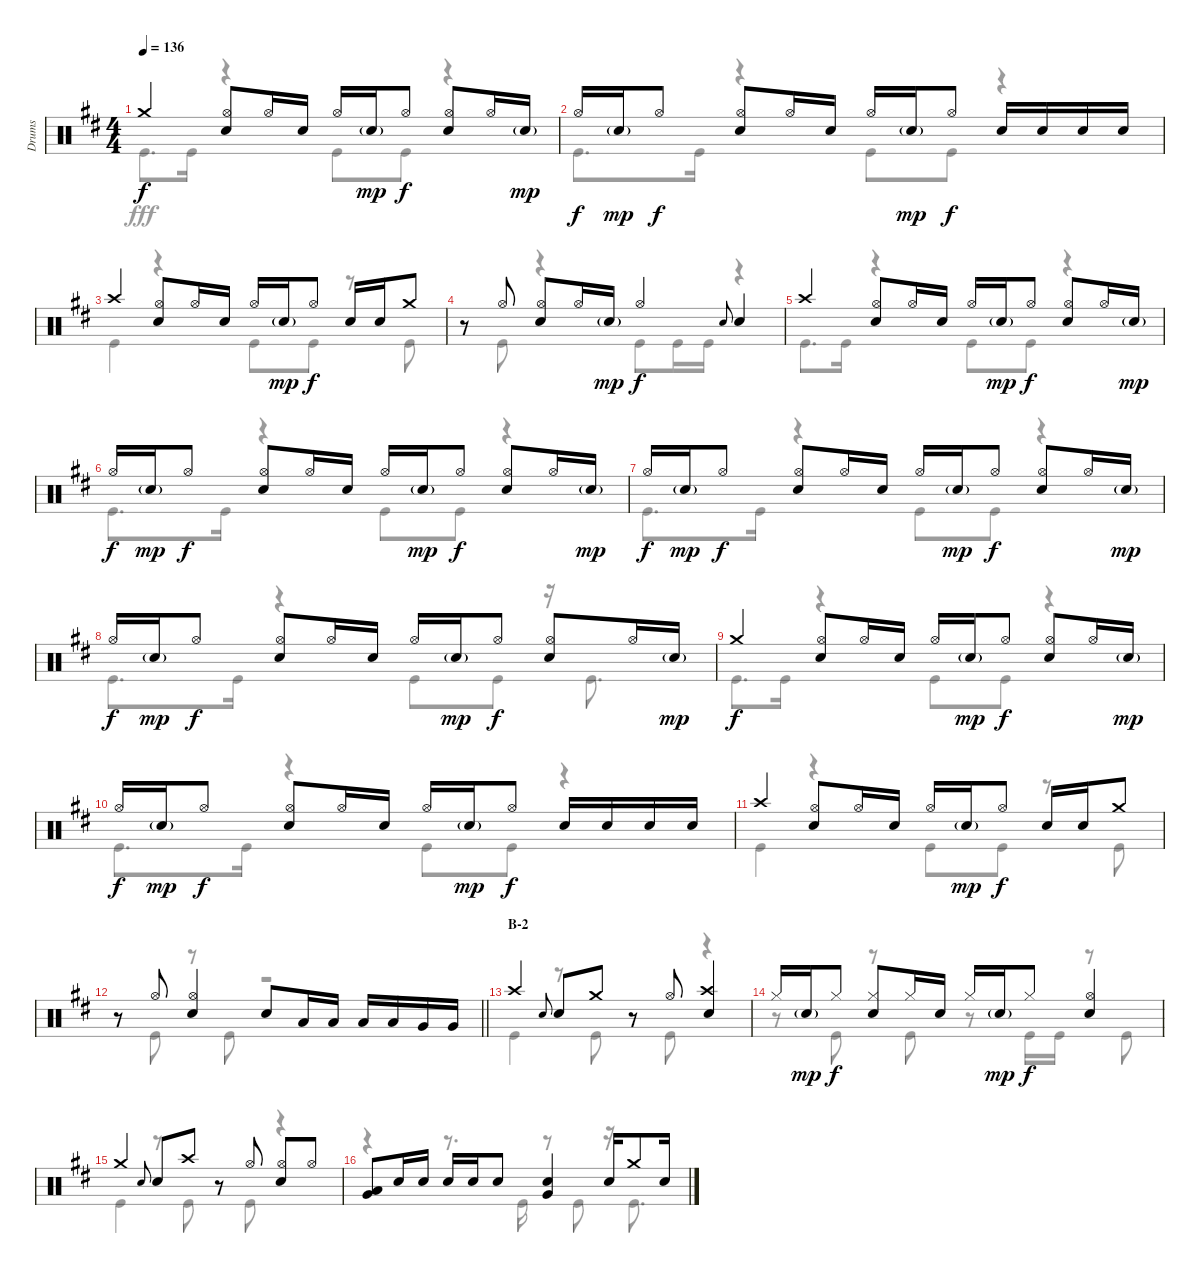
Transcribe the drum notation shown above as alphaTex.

\track ("Drums" "Drums") {instrument percussion}
\staff {score}
\articulation defaults
\voice
\ts (4 4)
\tempo 136
\clef neutral
\ks d "Crash medium (hit)".4{dy f}
("Hi-Hat (open)" "Snare (hit) 2").8 "Hi-Hat (open)".16 "Snare (hit) 2".16 "Hi-Hat (open)".16 "Snare (hit) 2"{g}.16{dy mp} "Hi-Hat (open)".8{dy f} ("Hi-Hat (open)" "Snare (hit) 2").8 "Hi-Hat (open)".16 "Snare (hit) 2"{g}.16{dy mp} |
"Hi-Hat (open)".16{dy f} "Snare (hit) 2"{g}.16{dy mp} "Hi-Hat (open)".8{dy f} ("Hi-Hat (open)" "Snare (hit) 2").8 "Hi-Hat (open)".16 "Snare (hit) 2".16 "Hi-Hat (open)".16 "Snare (hit) 2"{g}.16{dy mp} "Hi-Hat (open)".8{dy f} "Snare (hit) 2".16 "Snare (hit) 2".16 "Snare (hit) 2".16 "Snare (hit) 2".16 |
"Crash high (hit)".4 ("Hi-Hat (open)" "Snare (hit) 2").8 "Hi-Hat (open)".16 "Snare (hit) 2".16 "Hi-Hat (open)".16 "Snare (hit) 2"{g}.16{dy mp} "Hi-Hat (open)".8{dy f} "Snare (hit) 2".16 "Snare (hit) 2".16 "Crash medium (hit)".8 |
r.8 "Hi-Hat (open)".8 ("Hi-Hat (open)" "Snare (hit) 2").8 "Hi-Hat (open)".16 "Snare (hit) 2"{g}.16{dy mp} "Hi-Hat (open)".4{dy f} "Snare (hit) 2".8{gr onbeat} "Snare (hit) 2".4 |
"Crash high (hit)".4 ("Hi-Hat (open)" "Snare (hit) 2").8 "Hi-Hat (open)".16 "Snare (hit) 2".16 "Hi-Hat (open)".16 "Snare (hit) 2"{g}.16{dy mp} "Hi-Hat (open)".8{dy f} ("Hi-Hat (open)" "Snare (hit) 2").8 "Hi-Hat (open)".16 "Snare (hit) 2"{g}.16{dy mp} |
"Hi-Hat (open)".16{dy f} "Snare (hit) 2"{g}.16{dy mp} "Hi-Hat (open)".8{dy f} ("Hi-Hat (open)" "Snare (hit) 2").8 "Hi-Hat (open)".16 "Snare (hit) 2".16 "Hi-Hat (open)".16 "Snare (hit) 2"{g}.16{dy mp} "Hi-Hat (open)".8{dy f} ("Hi-Hat (open)" "Snare (hit) 2").8 "Hi-Hat (open)".16 "Snare (hit) 2"{g}.16{dy mp} |
"Hi-Hat (open)".16{dy f} "Snare (hit) 2"{g}.16{dy mp} "Hi-Hat (open)".8{dy f} ("Hi-Hat (open)" "Snare (hit) 2").8 "Hi-Hat (open)".16 "Snare (hit) 2".16 "Hi-Hat (open)".16 "Snare (hit) 2"{g}.16{dy mp} "Hi-Hat (open)".8{dy f} ("Hi-Hat (open)" "Snare (hit) 2").8 "Hi-Hat (open)".16 "Snare (hit) 2"{g}.16{dy mp} |
"Hi-Hat (open)".16{dy f} "Snare (hit) 2"{g}.16{dy mp} "Hi-Hat (open)".8{dy f} ("Hi-Hat (open)" "Snare (hit) 2").8 "Hi-Hat (open)".16 "Snare (hit) 2".16 "Hi-Hat (open)".16 "Snare (hit) 2"{g}.16{dy mp} "Hi-Hat (open)".8{dy f} ("Hi-Hat (open)" "Snare (hit) 2").8 "Hi-Hat (open)".16 "Snare (hit) 2"{g}.16{dy mp} |
"Crash medium (hit)".4{dy f} ("Hi-Hat (open)" "Snare (hit) 2").8 "Hi-Hat (open)".16 "Snare (hit) 2".16 "Hi-Hat (open)".16 "Snare (hit) 2"{g}.16{dy mp} "Hi-Hat (open)".8{dy f} ("Hi-Hat (open)" "Snare (hit) 2").8 "Hi-Hat (open)".16 "Snare (hit) 2"{g}.16{dy mp} |
"Hi-Hat (open)".16{dy f} "Snare (hit) 2"{g}.16{dy mp} "Hi-Hat (open)".8{dy f} ("Hi-Hat (open)" "Snare (hit) 2").8 "Hi-Hat (open)".16 "Snare (hit) 2".16 "Hi-Hat (open)".16 "Snare (hit) 2"{g}.16{dy mp} "Hi-Hat (open)".8{dy f} "Snare (hit) 2".16 "Snare (hit) 2".16 "Snare (hit) 2".16 "Snare (hit) 2".16 |
"Crash high (hit)".4 ("Hi-Hat (open)" "Snare (hit) 2").8 "Hi-Hat (open)".16 "Snare (hit) 2".16 "Hi-Hat (open)".16 "Snare (hit) 2"{g}.16{dy mp} "Hi-Hat (open)".8{dy f} "Snare (hit) 2".16 "Snare (hit) 2".16 "Crash medium (hit)".8 |
\barLineRight lightlight
r.8 "Hi-Hat (open)".8 ("Hi-Hat (open)" "Snare (hit) 2").4 "Snare (hit) 2".8 "Low Tom (hit)".16 "Low Tom (hit)".16 "Low Tom (hit)".16 "Low Tom (hit)".16 "Very Low Tom (hit)".16 "Very Low Tom (hit)".16 |
\section ("" "B-2")
"Crash high (hit)".4 "Snare (hit) 2".8{gr onbeat} "Snare (hit) 2".8 "Crash medium (hit)".8 r.8 "Hi-Hat (open)".8 ("Crash high (hit)" "Snare (hit) 2").4 |
"Hi-Hat (closed)".16 "Snare (hit) 2"{g}.16{dy mp} "Hi-Hat (closed)".8{dy f} ("Hi-Hat (closed)" "Snare (hit) 2").8 "Hi-Hat (closed)".16 "Snare (hit) 2".16 "Hi-Hat (closed)".16 "Snare (hit) 2"{g}.16{dy mp} "Hi-Hat (closed)".8{dy f} ("Hi-Hat (open)" "Snare (hit) 2").4 |
"Crash medium (hit)".4 "Snare (hit) 2".8{gr onbeat} "Snare (hit) 2".8 "Crash high (hit)".8 r.8 "Hi-Hat (open)".8 ("Hi-Hat (open)" "Snare (hit) 2").8 "Hi-Hat (open)".8 |
("Low Tom (hit)" "Very Low Tom (hit)").8 "Snare (hit) 2".16 "Snare (hit) 2".16 "Snare (hit) 2".16 "Snare (hit) 2".16 "Snare (hit) 2".8 ("Snare (hit) 2" "Very Low Tom (hit)").4 "Snare (hit) 2".16 "Crash medium (hit)".8 "Snare (hit) 2".16
\voice
\clef neutral
\ottava regular
\simile none
\ks d "Kick (hit)".8{d dy fff} "Kick (hit)".16
r.4 "Kick (hit)".8 "Kick (hit)".8 r.4 |
"Kick (hit)".8{d} "Kick (hit)".16 r.4 "Kick (hit)".8 "Kick (hit)".8 r.4 |
"Kick (hit)".4 r.4 "Kick (hit)".8 "Kick (hit)".8 r.8 "Kick (hit)".8 |
r.8 "Kick (hit)".8 r.4 "Kick (hit)".8 "Kick (hit)".16 "Kick (hit)".16 r.4 |
"Kick (hit)".8{d} "Kick (hit)".16 r.4 "Kick (hit)".8 "Kick (hit)".8 r.4 |
"Kick (hit)".8{d} "Kick (hit)".16 r.4 "Kick (hit)".8 "Kick (hit)".8 r.4 |
"Kick (hit)".8{d} "Kick (hit)".16 r.4 "Kick (hit)".8 "Kick (hit)".8 r.4 |
"Kick (hit)".8{d} "Kick (hit)".16 r.4 "Kick (hit)".8 "Kick (hit)".8 r.16 "Kick (hit)".8{d} |
"Kick (hit)".8{d} "Kick (hit)".16 r.4 "Kick (hit)".8 "Kick (hit)".8 r.4 |
"Kick (hit)".8{d} "Kick (hit)".16 r.4 "Kick (hit)".8 "Kick (hit)".8 r.4 |
"Kick (hit)".4 r.4 "Kick (hit)".8 "Kick (hit)".8 r.8 "Kick (hit)".8 |
\barLineRight lightlight
r.8 "Kick (hit)".8 r.8 "Kick (hit)".8 r.2 |
"Kick (hit)".4 r.8 "Kick (hit)".8 r.8 "Kick (hit)".8 r.4 |
r.8 "Kick (hit)".8 r.8 "Kick (hit)".8 r.8 "Kick (hit)".16 "Kick (hit)".16 r.8 "Kick (hit)".8 |
"Kick (hit)".4 r.8 "Kick (hit)".8 r.8 "Kick (hit)".8 r.4 |
r.4 r.8{d} "Kick (hit)".16 r.8 "Kick (hit)".8 r.16 "Kick (hit)".8{d}
